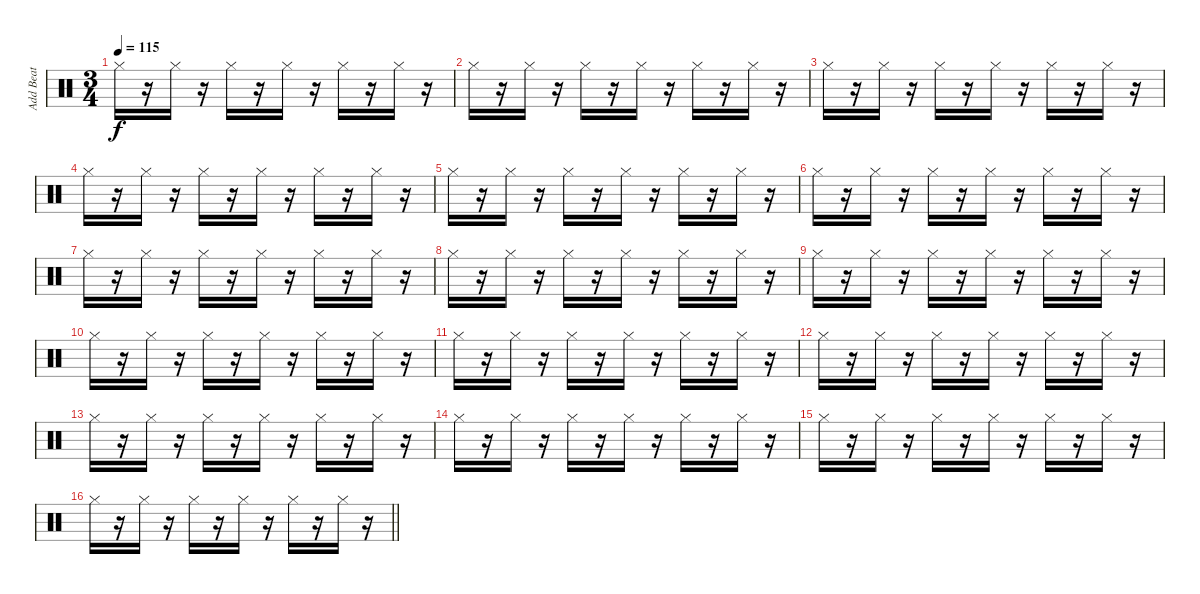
\track ("Add Beat" "Add Beat") {instrument percussion}
\staff {score}
\articulation defaults
\ts (3 4)
\tempo 115
\clef neutral
\ks c "Hi-Hat (closed)".16{dy f}
r.16 "Hi-Hat (closed)".16 r.16 "Hi-Hat (closed)".16 r.16 "Hi-Hat (closed)".16 r.16 "Hi-Hat (closed)".16 r.16 "Hi-Hat (closed)".16 r.16 |
"Hi-Hat (closed)".16 r.16 "Hi-Hat (closed)".16 r.16 "Hi-Hat (closed)".16 r.16 "Hi-Hat (closed)".16 r.16 "Hi-Hat (closed)".16 r.16 "Hi-Hat (closed)".16 r.16 |
"Hi-Hat (closed)".16 r.16 "Hi-Hat (closed)".16 r.16 "Hi-Hat (closed)".16 r.16 "Hi-Hat (closed)".16 r.16 "Hi-Hat (closed)".16 r.16 "Hi-Hat (closed)".16 r.16 |
"Hi-Hat (closed)".16 r.16 "Hi-Hat (closed)".16 r.16 "Hi-Hat (closed)".16 r.16 "Hi-Hat (closed)".16 r.16 "Hi-Hat (closed)".16 r.16 "Hi-Hat (closed)".16 r.16 |
"Hi-Hat (closed)".16 r.16 "Hi-Hat (closed)".16 r.16 "Hi-Hat (closed)".16 r.16 "Hi-Hat (closed)".16 r.16 "Hi-Hat (closed)".16 r.16 "Hi-Hat (closed)".16 r.16 |
"Hi-Hat (closed)".16 r.16 "Hi-Hat (closed)".16 r.16 "Hi-Hat (closed)".16 r.16 "Hi-Hat (closed)".16 r.16 "Hi-Hat (closed)".16 r.16 "Hi-Hat (closed)".16 r.16 |
"Hi-Hat (closed)".16 r.16 "Hi-Hat (closed)".16 r.16 "Hi-Hat (closed)".16 r.16 "Hi-Hat (closed)".16 r.16 "Hi-Hat (closed)".16 r.16 "Hi-Hat (closed)".16 r.16 |
"Hi-Hat (closed)".16 r.16 "Hi-Hat (closed)".16 r.16 "Hi-Hat (closed)".16 r.16 "Hi-Hat (closed)".16 r.16 "Hi-Hat (closed)".16 r.16 "Hi-Hat (closed)".16 r.16 |
"Hi-Hat (closed)".16 r.16 "Hi-Hat (closed)".16 r.16 "Hi-Hat (closed)".16 r.16 "Hi-Hat (closed)".16 r.16 "Hi-Hat (closed)".16 r.16 "Hi-Hat (closed)".16 r.16 |
"Hi-Hat (closed)".16 r.16 "Hi-Hat (closed)".16 r.16 "Hi-Hat (closed)".16 r.16 "Hi-Hat (closed)".16 r.16 "Hi-Hat (closed)".16 r.16 "Hi-Hat (closed)".16 r.16 |
"Hi-Hat (closed)".16 r.16 "Hi-Hat (closed)".16 r.16 "Hi-Hat (closed)".16 r.16 "Hi-Hat (closed)".16 r.16 "Hi-Hat (closed)".16 r.16 "Hi-Hat (closed)".16 r.16 |
"Hi-Hat (closed)".16 r.16 "Hi-Hat (closed)".16 r.16 "Hi-Hat (closed)".16 r.16 "Hi-Hat (closed)".16 r.16 "Hi-Hat (closed)".16 r.16 "Hi-Hat (closed)".16 r.16 |
"Hi-Hat (closed)".16 r.16 "Hi-Hat (closed)".16 r.16 "Hi-Hat (closed)".16 r.16 "Hi-Hat (closed)".16 r.16 "Hi-Hat (closed)".16 r.16 "Hi-Hat (closed)".16 r.16 |
"Hi-Hat (closed)".16 r.16 "Hi-Hat (closed)".16 r.16 "Hi-Hat (closed)".16 r.16 "Hi-Hat (closed)".16 r.16 "Hi-Hat (closed)".16 r.16 "Hi-Hat (closed)".16 r.16 |
"Hi-Hat (closed)".16 r.16 "Hi-Hat (closed)".16 r.16 "Hi-Hat (closed)".16 r.16 "Hi-Hat (closed)".16 r.16 "Hi-Hat (closed)".16 r.16 "Hi-Hat (closed)".16 r.16 |
\barLineRight lightlight "Hi-Hat (closed)".16
r.16 "Hi-Hat (closed)".16 r.16 "Hi-Hat (closed)".16 r.16 "Hi-Hat (closed)".16 r.16 "Hi-Hat (closed)".16 r.16 "Hi-Hat (closed)".16 r.16
